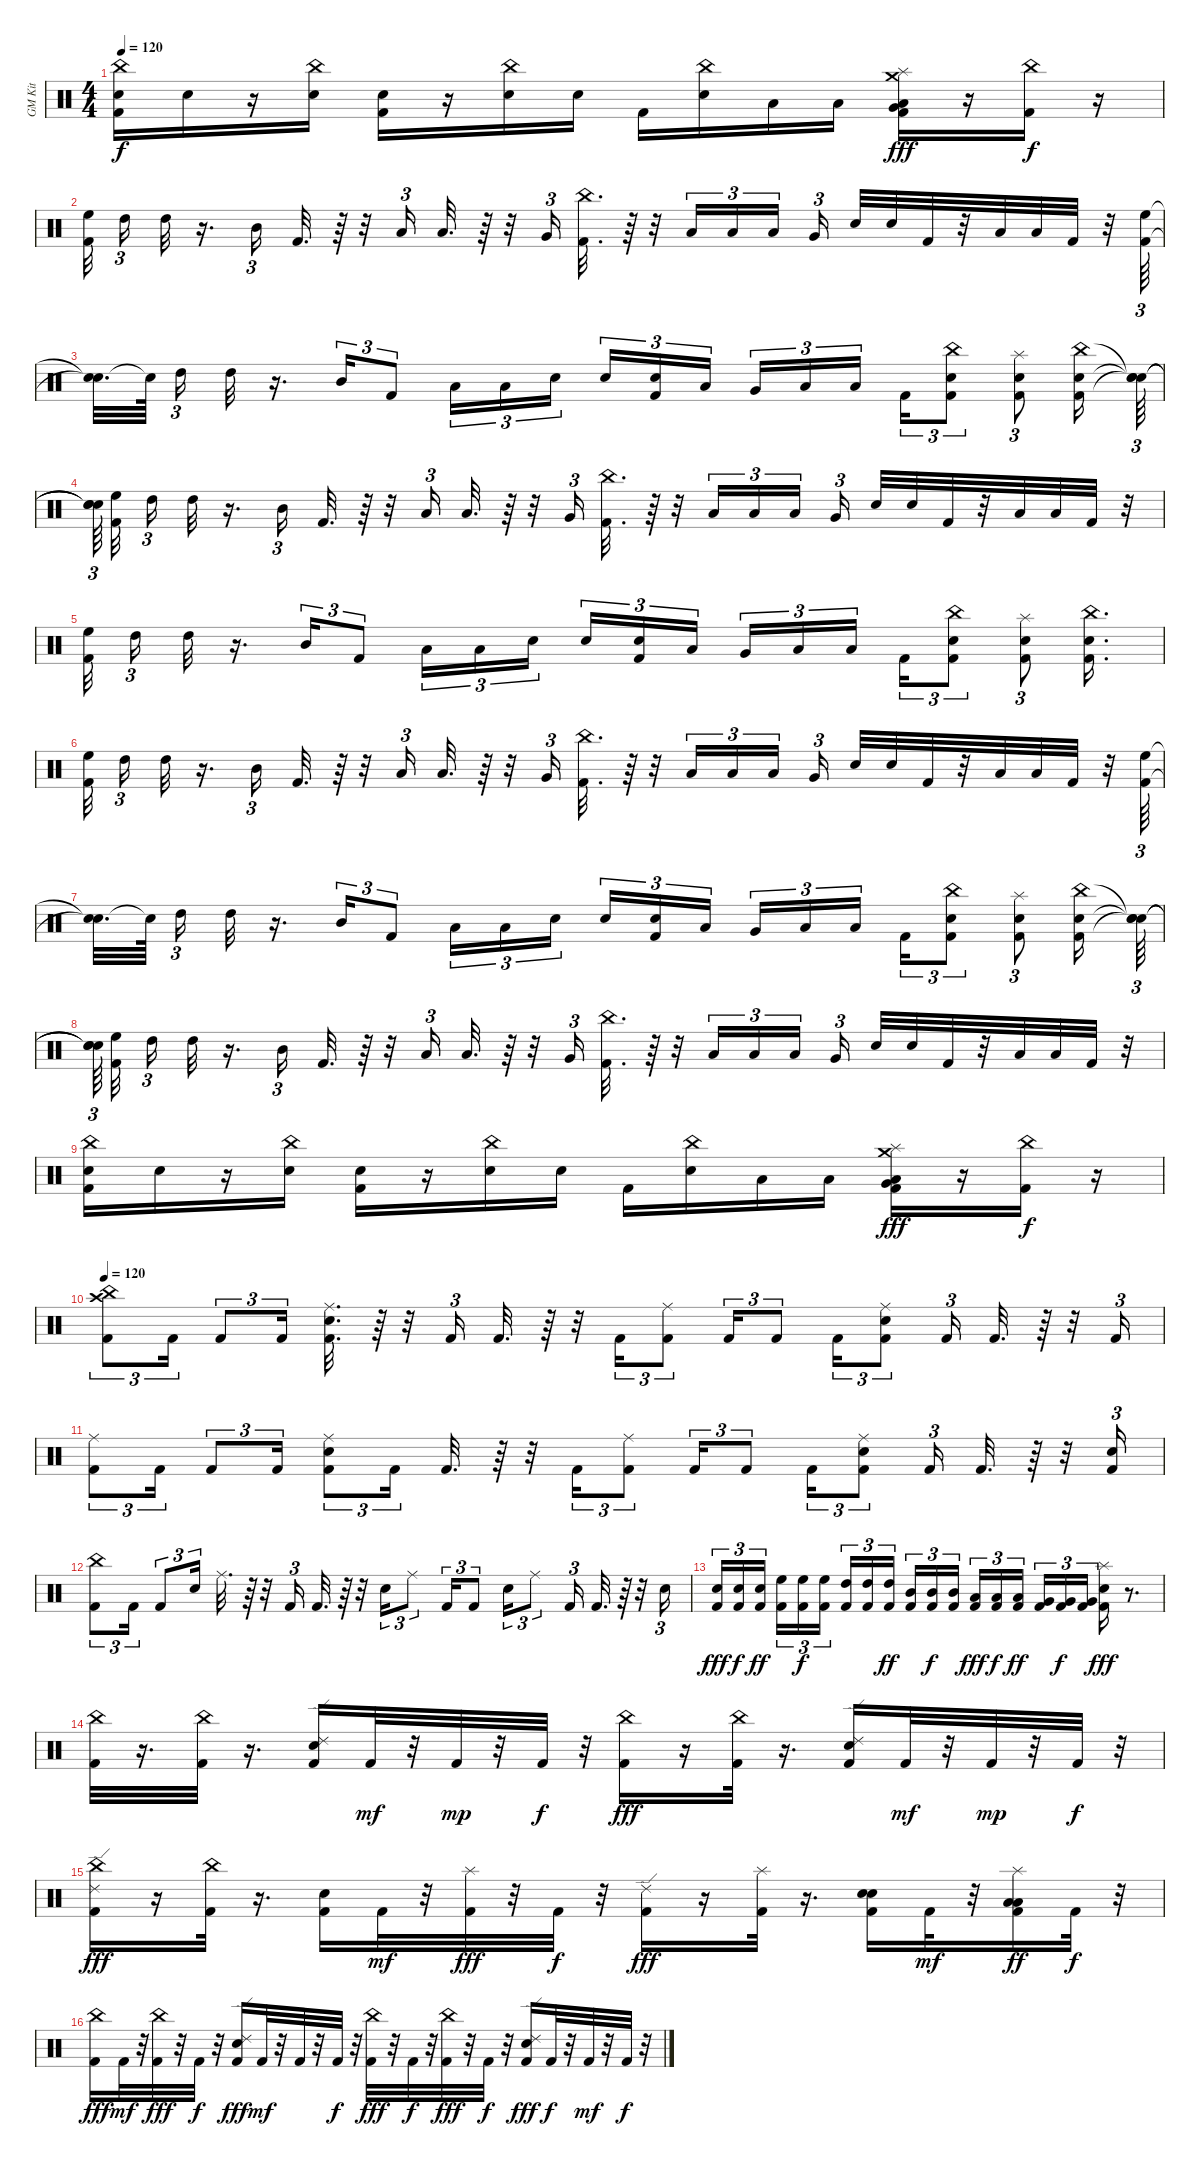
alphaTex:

\track ("GM Kit" "GM Kit") {instrument percussion}
\staff {score}
\articulation defaults
\ts (4 4)
\tempo 120
\clef neutral
\ks c
("Snare (hit) 2" "Kick (hit) 2" "China (hit)").16{dy f} "Snare (hit) 2".16 r.16 ("Snare (hit) 2" "China (hit)").16 ("Snare (hit) 2" "Kick (hit) 2").16 r.16 ("Snare (hit) 2" "China (hit)").16 "Snare (hit) 2".16 "Kick (hit) 2".16 ("Snare (hit) 2" "China (hit)").16 "Low Tom (hit)".16 "Low Floor Tom (hit)".16 ("Low Floor Tom (hit)" "Very Low Tom (hit)" "Splash (hit)" "Crash medium (hit)" "Kick (hit) 2").16{dy fff} r.16 ("Kick (hit) 2" "China (hit)").16{dy f} r.16 |
("Kick (hit) 2" "High Floor Tom (hit)").32{beam splitsecondary} "High Tom (hit)".16{tu (3 2)} "High Tom (hit)".32 r.16{d} "Mid Tom (hit)".16{tu (3 2)} "Kick (hit) 2".32{d} r.64 r.32 "Low Tom (hit)".16{tu (3 2)} "Low Tom (hit)".32{d} r.64 r.32 "Very Low Tom (hit)".16{tu (3 2)} ("Kick (hit) 2" "China (hit)").32{d} r.64 r.32 "Low Floor Tom (hit)".16{tu (3 2)} "Low Floor Tom (hit)".16{tu (3 2)} "Low Tom (hit)".16{tu (3 2) beam splitsecondary} "Very Low Tom (hit)".16{tu (3 2)} "Snare (hit) 2".32 "Snare (hit) 2".32 "Kick (hit) 2".32 r.32 "Low Floor Tom (hit)".32 "Low Floor Tom (hit)".32 "Kick (hit) 2".32 r.32 ("Kick (hit) 2" "High Floor Tom (hit)").64{tu (3 2)} |
("Snare (hit)"{t} "Snare (hit)"{t}).32{d} "Snare (hit)"{t}.64{beam splitsecondary} "High Tom (hit)".16{tu (3 2)} "High Tom (hit)".32 r.16{d} "Mid Tom (hit)".16{tu (3 2)} "Kick (hit) 2".8{tu (3 2)} "Low Tom (hit)".16{tu (3 2)} "Low Tom (hit)".16{tu (3 2)} "Snare (hit) 2".16{tu (3 2) beam splitsecondary} "Snare (hit) 2".16{tu (3 2)} ("Kick (hit) 2" "Snare (hit) 2").16{tu (3 2)} "Low Floor Tom (hit)".16{tu (3 2) beam splitsecondary} "Very Low Tom (hit)".16{tu (3 2)} "Low Floor Tom (hit)".16{tu (3 2)} "Low Floor Tom (hit)".16{tu (3 2) beam splitsecondary} "Kick (hit) 2".16{tu (3 2)} ("Kick (hit) 2" "Snare (hit) 2" "China (hit)").8{tu (3 2)} ("Kick (hit) 2" "Snare (hit) 2" "Splash (hit)").8{tu (3 2)} ("Kick (hit) 2" "Snare (hit) 2" "China (hit)").16 ("Snare (hit)"{t} "Snare (hit)"{t} "Snare (hit)"{t}).64{tu (3 2)} |
("Snare (hit)"{t} "Snare (hit)"{t} "Snare (hit)"{t}).64{tu (3 2) beam splitsecondary} ("Kick (hit) 2" "High Floor Tom (hit)").32{beam splitsecondary} "High Tom (hit)".16{tu (3 2)} "High Tom (hit)".32 r.16{d} "Mid Tom (hit)".16{tu (3 2)} "Kick (hit) 2".32{d} r.64 r.32 "Low Tom (hit)".16{tu (3 2)} "Low Tom (hit)".32{d} r.64 r.32 "Very Low Tom (hit)".16{tu (3 2)} ("Kick (hit) 2" "China (hit)").32{d} r.64 r.32 "Low Floor Tom (hit)".16{tu (3 2)} "Low Floor Tom (hit)".16{tu (3 2)} "Low Tom (hit)".16{tu (3 2) beam splitsecondary} "Very Low Tom (hit)".16{tu (3 2)} "Snare (hit) 2".32 "Snare (hit) 2".32 "Kick (hit) 2".32 r.32 "Low Floor Tom (hit)".32 "Low Floor Tom (hit)".32 "Kick (hit) 2".32 r.32 |
("Kick (hit) 2" "High Floor Tom (hit)").32{beam splitsecondary} "High Tom (hit)".16{tu (3 2)} "High Tom (hit)".32 r.16{d} "Mid Tom (hit)".16{tu (3 2)} "Kick (hit) 2".8{tu (3 2)} "Low Tom (hit)".16{tu (3 2)} "Low Tom (hit)".16{tu (3 2)} "Snare (hit) 2".16{tu (3 2) beam splitsecondary} "Snare (hit) 2".16{tu (3 2)} ("Kick (hit) 2" "Snare (hit) 2").16{tu (3 2)} "Low Floor Tom (hit)".16{tu (3 2) beam splitsecondary} "Very Low Tom (hit)".16{tu (3 2)} "Low Floor Tom (hit)".16{tu (3 2)} "Low Floor Tom (hit)".16{tu (3 2) beam splitsecondary} "Kick (hit) 2".16{tu (3 2)} ("Kick (hit) 2" "Snare (hit) 2" "China (hit)").8{tu (3 2)} ("Kick (hit) 2" "Snare (hit) 2" "Splash (hit)").8{tu (3 2)} ("Kick (hit) 2" "Snare (hit) 2" "China (hit)").16{d} |
("Kick (hit) 2" "High Floor Tom (hit)").32{beam splitsecondary} "High Tom (hit)".16{tu (3 2)} "High Tom (hit)".32 r.16{d} "Mid Tom (hit)".16{tu (3 2)} "Kick (hit) 2".32{d} r.64 r.32 "Low Tom (hit)".16{tu (3 2)} "Low Tom (hit)".32{d} r.64 r.32 "Very Low Tom (hit)".16{tu (3 2)} ("Kick (hit) 2" "China (hit)").32{d} r.64 r.32 "Low Floor Tom (hit)".16{tu (3 2)} "Low Floor Tom (hit)".16{tu (3 2)} "Low Tom (hit)".16{tu (3 2) beam splitsecondary} "Very Low Tom (hit)".16{tu (3 2)} "Snare (hit) 2".32 "Snare (hit) 2".32 "Kick (hit) 2".32 r.32 "Low Floor Tom (hit)".32 "Low Floor Tom (hit)".32 "Kick (hit) 2".32 r.32 ("Kick (hit) 2" "High Floor Tom (hit)").64{tu (3 2)} |
("Snare (hit)"{t} "Snare (hit)"{t}).32{d} "Snare (hit)"{t}.64{beam splitsecondary} "High Tom (hit)".16{tu (3 2)} "High Tom (hit)".32 r.16{d} "Mid Tom (hit)".16{tu (3 2)} "Kick (hit) 2".8{tu (3 2)} "Low Tom (hit)".16{tu (3 2)} "Low Tom (hit)".16{tu (3 2)} "Snare (hit) 2".16{tu (3 2) beam splitsecondary} "Snare (hit) 2".16{tu (3 2)} ("Kick (hit) 2" "Snare (hit) 2").16{tu (3 2)} "Low Floor Tom (hit)".16{tu (3 2) beam splitsecondary} "Very Low Tom (hit)".16{tu (3 2)} "Low Floor Tom (hit)".16{tu (3 2)} "Low Floor Tom (hit)".16{tu (3 2) beam splitsecondary} "Kick (hit) 2".16{tu (3 2)} ("Kick (hit) 2" "Snare (hit) 2" "China (hit)").8{tu (3 2)} ("Kick (hit) 2" "Snare (hit) 2" "Splash (hit)").8{tu (3 2)} ("Kick (hit) 2" "Snare (hit) 2" "China (hit)").16 ("Snare (hit)"{t} "Snare (hit)"{t} "Snare (hit)"{t}).64{tu (3 2)} |
("Snare (hit)"{t} "Snare (hit)"{t} "Snare (hit)"{t}).64{tu (3 2) beam splitsecondary} ("Kick (hit) 2" "High Floor Tom (hit)").32{beam splitsecondary} "High Tom (hit)".16{tu (3 2)} "High Tom (hit)".32 r.16{d} "Mid Tom (hit)".16{tu (3 2)} "Kick (hit) 2".32{d} r.64 r.32 "Low Tom (hit)".16{tu (3 2)} "Low Tom (hit)".32{d} r.64 r.32 "Very Low Tom (hit)".16{tu (3 2)} ("Kick (hit) 2" "China (hit)").32{d} r.64 r.32 "Low Floor Tom (hit)".16{tu (3 2)} "Low Floor Tom (hit)".16{tu (3 2)} "Low Tom (hit)".16{tu (3 2) beam splitsecondary} "Very Low Tom (hit)".16{tu (3 2)} "Snare (hit) 2".32 "Snare (hit) 2".32 "Kick (hit) 2".32 r.32 "Low Floor Tom (hit)".32 "Low Floor Tom (hit)".32 "Kick (hit) 2".32 r.32 |
("Snare (hit) 2" "Kick (hit) 2" "China (hit)").16 "Snare (hit) 2".16 r.16 ("Snare (hit) 2" "China (hit)").16 ("Snare (hit) 2" "Kick (hit) 2").16 r.16 ("Snare (hit) 2" "China (hit)").16 "Snare (hit) 2".16 "Kick (hit) 2".16 ("Snare (hit) 2" "China (hit)").16 "Low Tom (hit)".16 "Low Floor Tom (hit)".16 ("Low Floor Tom (hit)" "Very Low Tom (hit)" "Splash (hit)" "Crash medium (hit)" "Kick (hit) 2").16{dy fff} r.16 ("Kick (hit) 2" "China (hit)").16{dy f} r.16 |
\tempo 120
("Kick (hit) 2" "Crash high (hit)" "China (hit)").8{tu (3 2)} "Kick (hit) 2".16{tu (3 2)} "Kick (hit) 2".8{tu (3 2)} "Kick (hit) 2".16{tu (3 2)} ("Kick (hit) 2" "Snare (hit) 2" "Ride (middle)").32{d} r.64 r.32 "Kick (hit) 2".16{tu (3 2)} "Kick (hit) 2".32{d} r.64 r.32 "Kick (hit) 2".16{tu (3 2)} ("Kick (hit) 2" "Ride (middle)").8{tu (3 2)} "Kick (hit) 2".16{tu (3 2)} "Kick (hit) 2".8{tu (3 2)} "Kick (hit) 2".16{tu (3 2)} ("Kick (hit) 2" "Snare (hit) 2" "Ride (middle)").8{tu (3 2)} "Kick (hit) 2".16{tu (3 2)} "Kick (hit) 2".32{d} r.64 r.32 "Kick (hit) 2".16{tu (3 2)} |
("Kick (hit) 2" "Ride (middle)").8{tu (3 2)} "Kick (hit) 2".16{tu (3 2)} "Kick (hit) 2".8{tu (3 2)} "Kick (hit) 2".16{tu (3 2)} ("Kick (hit) 2" "Snare (hit) 2" "Ride (middle)").8{tu (3 2)} "Kick (hit) 2".16{tu (3 2)} "Kick (hit) 2".32{d} r.64 r.32 "Kick (hit) 2".16{tu (3 2)} ("Kick (hit) 2" "Ride (middle)").8{tu (3 2)} "Kick (hit) 2".16{tu (3 2)} "Kick (hit) 2".8{tu (3 2)} "Kick (hit) 2".16{tu (3 2)} ("Kick (hit) 2" "Snare (hit) 2" "Ride (middle)").8{tu (3 2)} "Kick (hit) 2".16{tu (3 2)} "Kick (hit) 2".32{d} r.64 r.32 ("Kick (hit) 2" "Snare (hit) 2").16{tu (3 2)} |
("Kick (hit) 2" "China (hit)").8{tu (3 2)} "Kick (hit) 2".16{tu (3 2)} "Kick (hit) 2".8{tu (3 2)} "Snare (hit) 2".16{tu (3 2)} "Ride (middle)".32{d} r.64 r.32 "Kick (hit) 2".16{tu (3 2)} "Kick (hit) 2".32{d} r.64 r.32 "Snare (hit) 2".16{tu (3 2)} "Ride (middle)".8{tu (3 2)} "Kick (hit) 2".16{tu (3 2)} "Kick (hit) 2".8{tu (3 2)} "Snare (hit) 2".16{tu (3 2)} "Ride (middle)".8{tu (3 2)} "Kick (hit) 2".16{tu (3 2)} "Kick (hit) 2".32{d} r.64 r.32 "Snare (hit) 2".16{tu (3 2)} |
("Kick (hit) 2" "Snare (hit) 2").16{tu (3 2) dy fff} ("Kick (hit) 2" "Snare (hit) 2").16{tu (3 2) dy f} ("Kick (hit) 2" "Snare (hit) 2").16{tu (3 2) dy ff beam splitsecondary} ("Kick (hit) 2" "High Floor Tom (hit)").16{tu (3 2)} ("Kick (hit) 2" "High Floor Tom (hit)").16{tu (3 2) dy f} ("Kick (hit) 2" "High Floor Tom (hit)").16{tu (3 2)} ("Kick (hit) 2" "High Tom (hit)").16{tu (3 2)} ("Kick (hit) 2" "High Tom (hit)").16{tu (3 2)} ("Kick (hit) 2" "High Tom (hit)").16{tu (3 2) dy ff beam splitsecondary} ("Kick (hit) 2" "Mid Tom (hit)").16{tu (3 2)} ("Kick (hit) 2" "Mid Tom (hit)").16{tu (3 2) dy f} ("Kick (hit) 2" "Mid Tom (hit)").16{tu (3 2)} ("Kick (hit) 2" "Low Tom (hit)").16{tu (3 2) dy fff} ("Kick (hit) 2" "Low Tom (hit)").16{tu (3 2) dy f} ("Kick (hit) 2" "Low Tom (hit)").16{tu (3 2) dy ff beam splitsecondary} ("Kick (hit) 2" "Very Low Tom (hit)").16{tu (3 2)} ("Kick (hit) 2" "Very Low Tom (hit)").16{tu (3 2) dy f} ("Kick (hit) 2" "Very Low Tom (hit)").16{tu (3 2)} ("Kick (hit) 2" "Snare (hit) 2" "Splash (hit)").16{dy fff} r.8{d} |
("Kick (hit) 2" "China (hit)").32 r.16{d} ("Kick (hit) 2" "China (hit)").32 r.16{d} ("Kick (hit) 2" "Snare (hit) 2" "Ride (edge) 2").16 "Kick (hit) 2".32{dy mf} r.32 "Kick (hit) 2".32{dy mp} r.32 "Kick (hit) 2".32{dy f} r.32 ("Kick (hit) 2" "China (hit)").16{dy fff} r.16 ("Kick (hit) 2" "China (hit)").32 r.16{d} ("Kick (hit) 2" "Snare (hit) 2" "Ride (edge) 2").16 "Kick (hit) 2".32{dy mf} r.32 "Kick (hit) 2".32{dy mp} r.32 "Kick (hit) 2".32{dy f} r.32 |
("Kick (hit) 2" "China (hit)" "Ride (edge) 2").16{dy fff} r.16 ("Kick (hit) 2" "China (hit)").32 r.16{d} ("Kick (hit) 2" "Snare (hit) 2").16 "Kick (hit) 2".32{dy mf} r.32 ("Kick (hit) 2" "Splash (hit)").32{dy fff} r.32 "Kick (hit) 2".32{dy f} r.32 ("Kick (hit) 2" "Ride (edge) 2").16{dy fff} r.16 ("Kick (hit) 2" "Splash (hit)").32 r.16{d} ("Kick (hit) 2" "Snare (hit) 2" "Snare (hit) 2").16 "Kick (hit) 2".32{dy mf} r.32 ("Kick (hit) 2" "Low Floor Tom (hit)" "Splash (hit)" "Low Floor Tom (hit)").16{dy ff} "Kick (hit) 2".32{dy f} r.32 |
("Kick (hit) 2" "China (hit)").16{dy fff} "Kick (hit) 2".32{dy mf} r.32 ("Kick (hit) 2" "China (hit)").32{dy fff} r.32 "Kick (hit) 2".32{dy f} r.32 ("Kick (hit) 2" "Snare (hit) 2" "Ride (edge) 2").16{dy fff} "Kick (hit) 2".32{dy mf} r.32 "Kick (hit) 2".32 r.32 "Kick (hit) 2".32{dy f} r.32 ("Kick (hit) 2" "China (hit)").32{dy fff} r.32 "Kick (hit) 2".32{dy f} r.32 ("Kick (hit) 2" "China (hit)").32{dy fff} r.32 "Kick (hit) 2".32{dy f} r.32 ("Kick (hit) 2" "Snare (hit) 2" "Ride (edge) 2").16{dy fff} "Kick (hit) 2".32{dy f} r.32 "Kick (hit) 2".32{dy mf} r.32 "Kick (hit) 2".32{dy f} r.32
